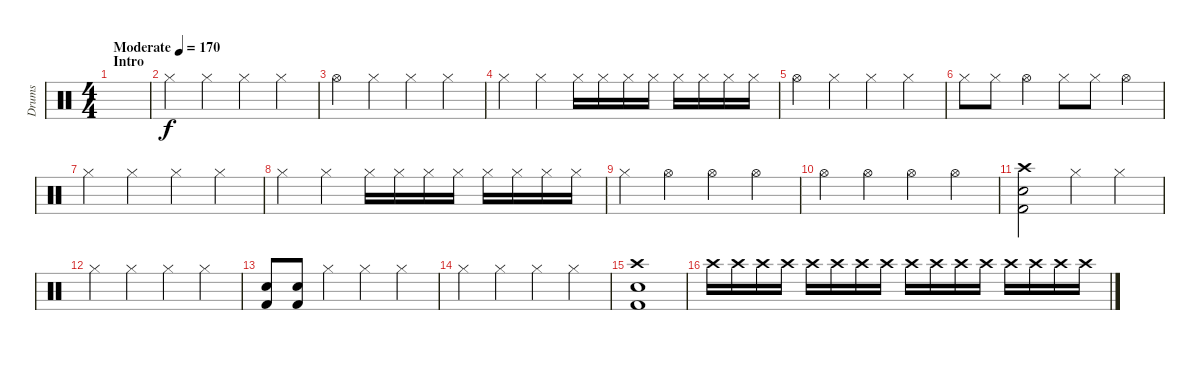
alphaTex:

\track ("Drums" "Drums") {instrument percussion}
\staff {score}
\articulation defaults
\ts (4 4)
\section ("" "Intro")
\tempo (170 "Moderate")
\clef neutral
\ks c
|
"Hi-Hat (closed)".4 "Hi-Hat (closed)".4 "Hi-Hat (closed)".4 "Hi-Hat (closed)".4 |
"Hi-Hat (open)".4 "Hi-Hat (closed)".4 "Hi-Hat (closed)".4 "Hi-Hat (closed)".4 |
"Hi-Hat (closed)".4 "Hi-Hat (closed)".4 "Hi-Hat (closed)".16 "Hi-Hat (closed)".16 "Hi-Hat (closed)".16 "Hi-Hat (closed)".16 "Hi-Hat (closed)".16 "Hi-Hat (closed)".16 "Hi-Hat (closed)".16 "Hi-Hat (closed)".16 |
"Hi-Hat (open)".4 "Hi-Hat (closed)".4 "Hi-Hat (closed)".4 "Hi-Hat (closed)".4 |
"Hi-Hat (closed)".8 "Hi-Hat (closed)".8 "Hi-Hat (open)".4 "Hi-Hat (closed)".8 "Hi-Hat (closed)".8 "Hi-Hat (open)".4 |
"Hi-Hat (closed)".4 "Hi-Hat (closed)".4 "Hi-Hat (closed)".4 "Hi-Hat (closed)".4 |
"Hi-Hat (closed)".4 "Hi-Hat (closed)".4 "Hi-Hat (closed)".16 "Hi-Hat (closed)".16 "Hi-Hat (closed)".16 "Hi-Hat (closed)".16 "Hi-Hat (closed)".16 "Hi-Hat (closed)".16 "Hi-Hat (closed)".16 "Hi-Hat (closed)".16 |
"Hi-Hat (closed)".4 "Hi-Hat (open)".4 "Hi-Hat (open)".4 "Hi-Hat (open)".4 |
"Hi-Hat (open)".4 "Hi-Hat (open)".4 "Hi-Hat (open)".4 "Hi-Hat (open)".4 |
("Crash high (hit)" "Snare (hit) 2" "Kick (hit) 2").2 "Hi-Hat (closed)".4 "Hi-Hat (closed)".4 |
"Hi-Hat (closed)".4 "Hi-Hat (closed)".4 "Hi-Hat (closed)".4 "Hi-Hat (closed)".4 |
("Snare (hit) 2" "Kick (hit) 2").8 ("Snare (hit) 2" "Kick (hit) 2").8 "Hi-Hat (closed)".4 "Hi-Hat (closed)".4 "Hi-Hat (closed)".4 |
"Hi-Hat (closed)".4 "Hi-Hat (closed)".4 "Hi-Hat (closed)".4 "Hi-Hat (closed)".4 |
("Crash high (hit)" "Snare (hit) 2" "Kick (hit) 2").1 |
"Crash high (hit)".16{volume 9} "Crash high (hit)".16 "Crash high (hit)".16 "Crash high (hit)".16 "Crash high (hit)".16 "Crash high (hit)".16 "Crash high (hit)".16 "Crash high (hit)".16 "Crash high (hit)".16 "Crash high (hit)".16 "Crash high (hit)".16 "Crash high (hit)".16 "Crash high (hit)".16{volume 13} "Crash high (hit)".16 "Crash high (hit)".16 "Crash high (hit)".16{volume 16}
